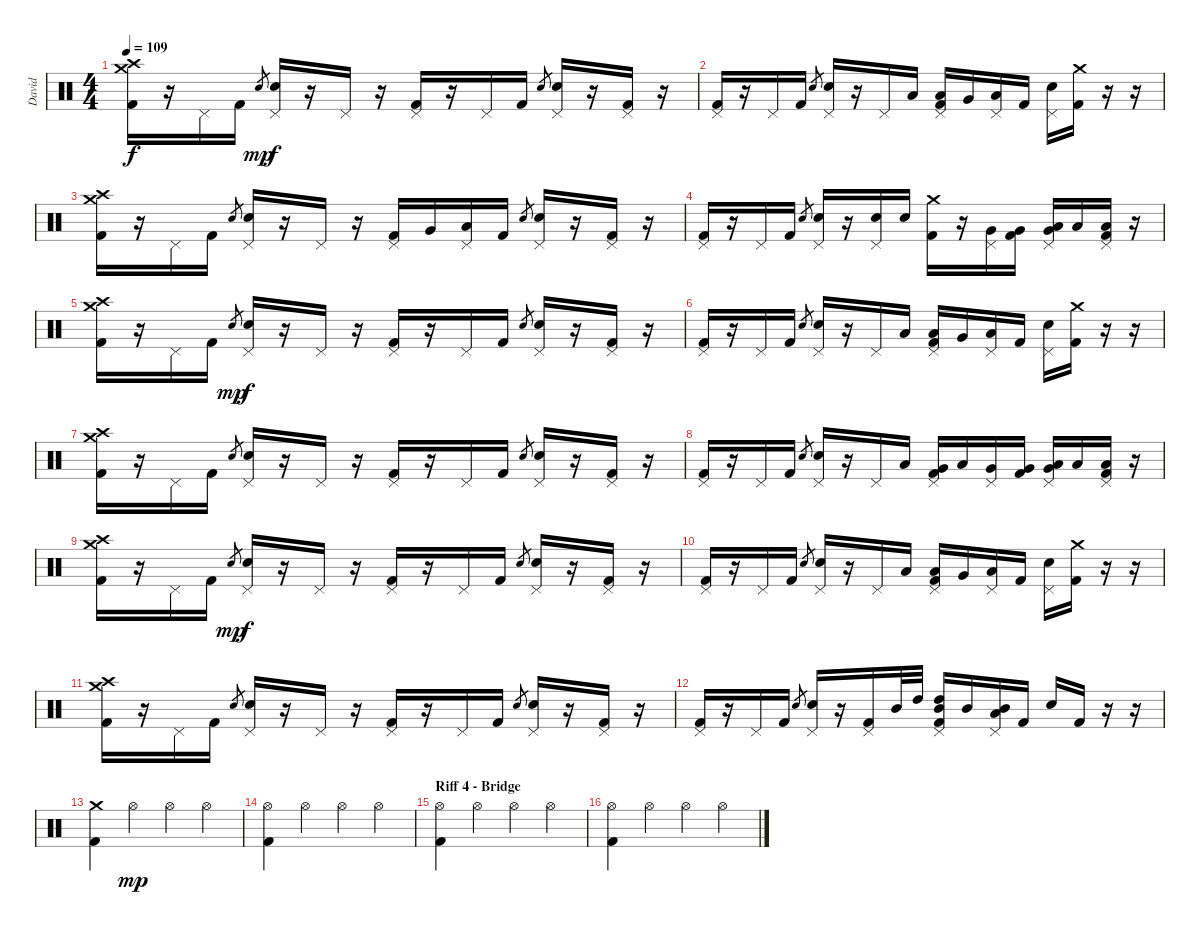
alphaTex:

\track ("David" "David") {instrument percussion}
\staff {score}
\articulation defaults
\ts (4 4)
\tempo 109
\clef neutral
\ks c
("Crash medium (hit)" "Crash high (hit)" "Kick (hit) 2").16{dy f} r.16 "Pedal Hi-Hat (hit)".16 "Kick (hit) 2".16 "Snare (hit) 2".8{gr dy mp} ("Pedal Hi-Hat (hit)" "Snare (hit) 2").16{dy f} r.16 "Pedal Hi-Hat (hit)".16 r.16 ("Pedal Hi-Hat (hit)" "Kick (hit) 2").16 r.16 "Pedal Hi-Hat (hit)".16 "Kick (hit) 2".16 "Snare (hit) 2".8{gr} ("Pedal Hi-Hat (hit)" "Snare (hit) 2").16 r.16 ("Pedal Hi-Hat (hit)" "Kick (hit) 2").16 r.16 |
("Pedal Hi-Hat (hit)" "Kick (hit) 2").16 r.16 "Pedal Hi-Hat (hit)".16 "Kick (hit) 2".16 "Snare (hit) 2".8{gr} ("Pedal Hi-Hat (hit)" "Snare (hit) 2").16 r.16 "Pedal Hi-Hat (hit)".16 "Low Tom (hit)".16 ("Pedal Hi-Hat (hit)" "Low Tom (hit)" "Kick (hit) 2").16 "Very Low Tom (hit)".16 ("Pedal Hi-Hat (hit)" "Low Floor Tom (hit)").16 "Kick (hit) 2".16 ("Pedal Hi-Hat (hit)" "Snare (hit) 2").16 ("Crash medium (hit)" "Kick (hit) 2").16 r.16 r.16 |
("Crash medium (hit)" "Crash high (hit)" "Kick (hit) 2").16 r.16 "Pedal Hi-Hat (hit)".16 "Kick (hit) 2".16 "Snare (hit) 2".8{gr} ("Pedal Hi-Hat (hit)" "Snare (hit) 2").16 r.16 "Pedal Hi-Hat (hit)".16 r.16 ("Pedal Hi-Hat (hit)" "Kick (hit) 2").16 "Very Low Tom (hit)".16 ("Pedal Hi-Hat (hit)" "Low Floor Tom (hit)").16 "Kick (hit) 2".16 "Snare (hit) 2".8{gr} ("Pedal Hi-Hat (hit)" "Snare (hit) 2").16 r.16 ("Pedal Hi-Hat (hit)" "Kick (hit) 2").16 r.16 |
("Pedal Hi-Hat (hit)" "Kick (hit) 2").16 r.16 "Pedal Hi-Hat (hit)".16 "Kick (hit) 2".16 "Snare (hit) 2".8{gr} ("Pedal Hi-Hat (hit)" "Snare (hit) 2").16 r.16 ("Pedal Hi-Hat (hit)" "Snare (hit) 2").16 "Snare (hit) 2".16 ("Crash medium (hit)" "Kick (hit) 2").16 r.16 ("Pedal Hi-Hat (hit)" "Very Low Tom (hit)").16 ("Very Low Tom (hit)" "Kick (hit) 2").16 ("Pedal Hi-Hat (hit)" "Very Low Tom (hit)" "Low Floor Tom (hit)").16 "Low Floor Tom (hit)".16 ("Pedal Hi-Hat (hit)" "Low Floor Tom (hit)" "Kick (hit) 2").16 r.16 |
("Crash medium (hit)" "Crash high (hit)" "Kick (hit) 2").16 r.16 "Pedal Hi-Hat (hit)".16 "Kick (hit) 2".16 "Snare (hit) 2".8{gr dy mp} ("Pedal Hi-Hat (hit)" "Snare (hit) 2").16{dy f} r.16 "Pedal Hi-Hat (hit)".16 r.16 ("Pedal Hi-Hat (hit)" "Kick (hit) 2").16 r.16 "Pedal Hi-Hat (hit)".16 "Kick (hit) 2".16 "Snare (hit) 2".8{gr} ("Pedal Hi-Hat (hit)" "Snare (hit) 2").16 r.16 ("Pedal Hi-Hat (hit)" "Kick (hit) 2").16 r.16 |
("Pedal Hi-Hat (hit)" "Kick (hit) 2").16 r.16 "Pedal Hi-Hat (hit)".16 "Kick (hit) 2".16 "Snare (hit) 2".8{gr} ("Pedal Hi-Hat (hit)" "Snare (hit) 2").16 r.16 "Pedal Hi-Hat (hit)".16 "Low Tom (hit)".16 ("Pedal Hi-Hat (hit)" "Low Tom (hit)" "Kick (hit) 2").16 "Very Low Tom (hit)".16 ("Pedal Hi-Hat (hit)" "Low Floor Tom (hit)").16 "Kick (hit) 2".16 ("Pedal Hi-Hat (hit)" "Snare (hit) 2").16 ("Crash medium (hit)" "Kick (hit) 2").16 r.16 r.16 |
("Crash medium (hit)" "Crash high (hit)" "Kick (hit) 2").16 r.16 "Pedal Hi-Hat (hit)".16 "Kick (hit) 2".16 "Snare (hit) 2".8{gr} ("Pedal Hi-Hat (hit)" "Snare (hit) 2").16 r.16 "Pedal Hi-Hat (hit)".16 r.16 ("Pedal Hi-Hat (hit)" "Kick (hit) 2").16 r.16 "Pedal Hi-Hat (hit)".16 "Kick (hit) 2".16 "Snare (hit) 2".8{gr} ("Pedal Hi-Hat (hit)" "Snare (hit) 2").16 r.16 ("Pedal Hi-Hat (hit)" "Kick (hit) 2").16 r.16 |
("Pedal Hi-Hat (hit)" "Kick (hit) 2").16 r.16 "Pedal Hi-Hat (hit)".16 "Kick (hit) 2".16 "Snare (hit) 2".8{gr} ("Pedal Hi-Hat (hit)" "Snare (hit) 2").16 r.16 "Pedal Hi-Hat (hit)".16 "Low Tom (hit)".16 ("Pedal Hi-Hat (hit)" "Very Low Tom (hit)" "Kick (hit) 2").16 "Low Tom (hit)".16 ("Pedal Hi-Hat (hit)" "Very Low Tom (hit)").16 ("Very Low Tom (hit)" "Kick (hit) 2").16 ("Pedal Hi-Hat (hit)" "Very Low Tom (hit)" "Low Floor Tom (hit)").16 "Low Floor Tom (hit)".16 ("Pedal Hi-Hat (hit)" "Low Floor Tom (hit)" "Kick (hit) 2").16 r.16 |
("Crash medium (hit)" "Crash high (hit)" "Kick (hit) 2").16 r.16 "Pedal Hi-Hat (hit)".16 "Kick (hit) 2".16 "Snare (hit) 2".8{gr dy mp} ("Pedal Hi-Hat (hit)" "Snare (hit) 2").16{dy f} r.16 "Pedal Hi-Hat (hit)".16 r.16 ("Pedal Hi-Hat (hit)" "Kick (hit) 2").16 r.16 "Pedal Hi-Hat (hit)".16 "Kick (hit) 2".16 "Snare (hit) 2".8{gr} ("Pedal Hi-Hat (hit)" "Snare (hit) 2").16 r.16 ("Pedal Hi-Hat (hit)" "Kick (hit) 2").16 r.16 |
("Pedal Hi-Hat (hit)" "Kick (hit) 2").16 r.16 "Pedal Hi-Hat (hit)".16 "Kick (hit) 2".16 "Snare (hit) 2".8{gr} ("Pedal Hi-Hat (hit)" "Snare (hit) 2").16 r.16 "Pedal Hi-Hat (hit)".16 "Low Tom (hit)".16 ("Pedal Hi-Hat (hit)" "Low Tom (hit)" "Kick (hit) 2").16 "Very Low Tom (hit)".16 ("Pedal Hi-Hat (hit)" "Low Floor Tom (hit)").16 "Kick (hit) 2".16 ("Pedal Hi-Hat (hit)" "Snare (hit) 2").16 ("Crash medium (hit)" "Kick (hit) 2").16 r.16 r.16 |
("Crash medium (hit)" "Crash high (hit)" "Kick (hit) 2").16 r.16 "Pedal Hi-Hat (hit)".16 "Kick (hit) 2".16 "Snare (hit) 2".8{gr} ("Pedal Hi-Hat (hit)" "Snare (hit) 2").16 r.16 "Pedal Hi-Hat (hit)".16 r.16 ("Pedal Hi-Hat (hit)" "Kick (hit) 2").16 r.16 "Pedal Hi-Hat (hit)".16 "Kick (hit) 2".16 "Snare (hit) 2".8{gr} ("Pedal Hi-Hat (hit)" "Snare (hit) 2").16 r.16 ("Pedal Hi-Hat (hit)" "Kick (hit) 2").16 r.16 |
("Pedal Hi-Hat (hit)" "Kick (hit) 2").16 r.16 "Pedal Hi-Hat (hit)".16 "Kick (hit) 2".16 "Snare (hit) 2".8{gr} ("Pedal Hi-Hat (hit)" "Snare (hit) 2").16 r.16 ("Pedal Hi-Hat (hit)" "Kick (hit) 2").16 "Mid Tom (hit)".32 "High Tom (hit)".32 ("Pedal Hi-Hat (hit)" "High Tom (hit)" "Mid Tom (hit)" "Kick (hit) 2").16 "Mid Tom (hit)".16 ("Pedal Hi-Hat (hit)" "Low Tom (hit)" "Mid Tom (hit)").16 "Kick (hit) 2".16 "Snare (hit) 2".16 "Kick (hit) 2".16 r.16 r.16 |
("Crash medium (hit)" "Kick (hit) 2").4 "Hi-Hat (open)".4{dy mp} "Hi-Hat (open)".4 "Hi-Hat (open)".4 |
("Hi-Hat (open)" "Kick (hit) 2").4 "Hi-Hat (open)".4 "Hi-Hat (open)".4 "Hi-Hat (open)".4 |
\section ("" "Riff 4 - Bridge")
("Hi-Hat (open)" "Kick (hit) 2").4 "Hi-Hat (open)".4 "Hi-Hat (open)".4 "Hi-Hat (open)".4 |
("Hi-Hat (open)" "Kick (hit) 2").4 "Hi-Hat (open)".4 "Hi-Hat (open)".4 "Hi-Hat (open)".4
